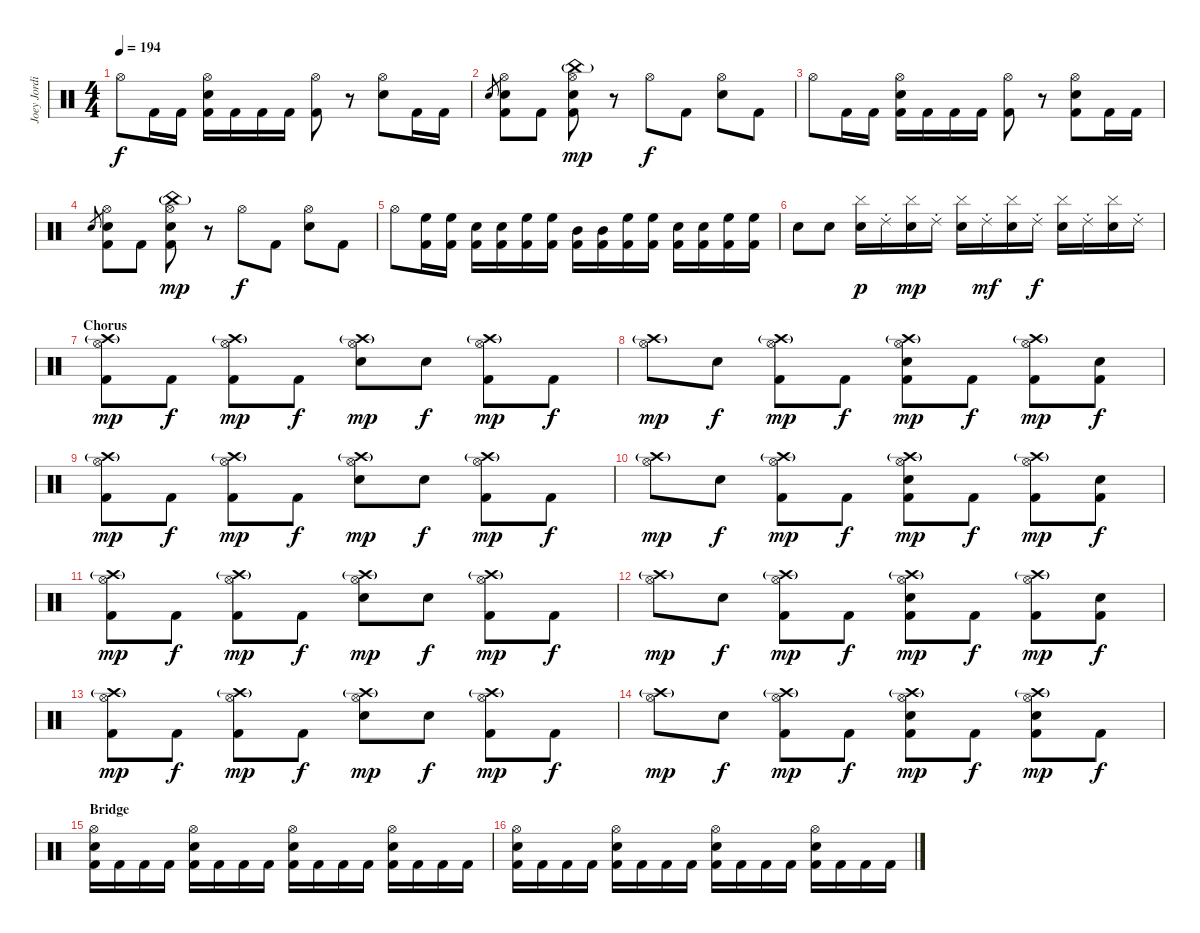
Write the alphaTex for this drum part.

\track ("Joey Jordison" "Joey Jordi") {instrument percussion}
\staff {score}
\articulation defaults
\ts (4 4)
\tempo 194
\clef neutral
\ks c "Hi-Hat (open)".8{dy f} "Kick (hit) 2".16 "Kick (hit) 2".16
("Hi-Hat (open)" "Snare (hit) 2" "Kick (hit) 2").16 "Kick (hit) 2".16 "Kick (hit) 2".16 "Kick (hit) 2".16 ("Hi-Hat (open)" "Kick (hit) 2").8 r.8 ("Hi-Hat (open)" "Snare (hit) 2").8 "Kick (hit) 2".16 "Kick (hit) 2".16 |
"Snare (hit) 2".8{gr} ("Hi-Hat (open)" "Snare (hit)" "Kick (hit) 2").8 "Kick (hit) 2".8 ("Hi-Hat (open)" "China (hit)"{g} "Snare (hit) 2" "Kick (hit) 2").8{dy mp} r.8 "Hi-Hat (open)".8{dy f} "Kick (hit) 2".8 ("Hi-Hat (open)" "Snare (hit) 2").8 "Kick (hit) 2".8 |
"Hi-Hat (open)".8 "Kick (hit) 2".16 "Kick (hit) 2".16 ("Hi-Hat (open)" "Snare (hit) 2" "Kick (hit) 2").16 "Kick (hit) 2".16 "Kick (hit) 2".16 "Kick (hit) 2".16 ("Hi-Hat (open)" "Kick (hit) 2").8 r.8 ("Hi-Hat (open)" "Snare (hit) 2" "Kick (hit) 2").8 "Kick (hit) 2".16 "Kick (hit) 2".16 |
"Snare (hit) 2".8{gr} ("Hi-Hat (open)" "Snare (hit)" "Kick (hit) 2").8 "Kick (hit) 2".8 ("Hi-Hat (open)" "China (hit)"{g} "Snare (hit) 2" "Kick (hit) 2").8{dy mp} r.8 "Hi-Hat (open)".8{dy f} "Kick (hit) 2".8 ("Hi-Hat (open)" "Snare (hit) 2").8 "Kick (hit) 2".8 |
"Hi-Hat (open)".8 ("High Floor Tom (hit)" "Kick (hit) 2").16 ("High Floor Tom (hit)" "Kick (hit) 2").16 ("Snare (hit) 2" "Kick (hit) 2").16 ("Snare (hit) 2" "Kick (hit) 2").16 ("High Floor Tom (hit)" "Kick (hit) 2").16 ("High Floor Tom (hit)" "Kick (hit) 2").16 ("Mid Tom (hit)" "Kick (hit) 2").16 ("Mid Tom (hit)" "Kick (hit) 2").16 ("High Floor Tom (hit)" "Kick (hit) 2").16 ("High Floor Tom (hit)" "Kick (hit) 2").16 ("Snare (hit) 2" "Kick (hit) 2").16 ("Snare (hit) 2" "Kick (hit) 2").16 ("High Floor Tom (hit)" "Kick (hit) 2").16 ("High Floor Tom (hit)" "Kick (hit) 2").16 |
"Snare (hit) 2".8 "Snare (hit) 2".8 ("Cymbal (hit)" "Snare (hit) 2").16{dy p} "Ride (choke) 2".16 ("Cymbal (hit)" "Snare (hit) 2").16{dy mp} "Ride (choke) 2".16 ("Cymbal (hit)" "Snare (hit) 2").16 "Ride (choke) 2".16{dy mf} ("Cymbal (hit)" "Snare (hit) 2").16 "Ride (choke) 2".16{dy f} ("Cymbal (hit)" "Snare (hit) 2").16 "Ride (choke) 2".16 ("Cymbal (hit)" "Snare (hit) 2").16 "Ride (choke) 2".16 |
\section ("" "Chorus")
("Hi-Hat (open)" "Crash high (hit)"{g} "Kick (hit) 2").8{dy mp} "Kick (hit) 2".8{dy f} ("Hi-Hat (open)" "Crash high (hit)"{g} "Kick (hit) 2").8{dy mp} "Kick (hit) 2".8{dy f} ("Hi-Hat (open)" "Crash high (hit)"{g} "Snare (hit) 2").8{dy mp} "Snare (hit) 2".8{dy f} ("Hi-Hat (open)" "Crash high (hit)"{g} "Kick (hit) 2").8{dy mp} "Kick (hit) 2".8{dy f} |
("Hi-Hat (open)" "Crash high (hit)"{g}).8{dy mp} "Snare (hit) 2".8{dy f} ("Hi-Hat (open)" "Crash high (hit)"{g} "Kick (hit) 2").8{dy mp} "Kick (hit) 2".8{dy f} ("Hi-Hat (open)" "Crash high (hit)"{g} "Snare (hit) 2" "Kick (hit) 2").8{dy mp} "Kick (hit) 2".8{dy f} ("Hi-Hat (open)" "Crash high (hit)"{g} "Kick (hit) 2").8{dy mp} ("Snare (hit) 2" "Kick (hit) 2").8{dy f} |
("Hi-Hat (open)" "Crash high (hit)"{g} "Kick (hit) 2").8{dy mp} "Kick (hit) 2".8{dy f} ("Hi-Hat (open)" "Crash high (hit)"{g} "Kick (hit) 2").8{dy mp} "Kick (hit) 2".8{dy f} ("Hi-Hat (open)" "Crash high (hit)"{g} "Snare (hit) 2").8{dy mp} "Snare (hit) 2".8{dy f} ("Hi-Hat (open)" "Crash high (hit)"{g} "Kick (hit) 2").8{dy mp} "Kick (hit) 2".8{dy f} |
("Hi-Hat (open)" "Crash high (hit)"{g}).8{dy mp} "Snare (hit) 2".8{dy f} ("Hi-Hat (open)" "Crash high (hit)"{g} "Kick (hit) 2").8{dy mp} "Kick (hit) 2".8{dy f} ("Hi-Hat (open)" "Crash high (hit)"{g} "Snare (hit) 2" "Kick (hit) 2").8{dy mp} "Kick (hit) 2".8{dy f} ("Hi-Hat (open)" "Crash high (hit)"{g} "Kick (hit) 2").8{dy mp} ("Snare (hit) 2" "Kick (hit) 2").8{dy f} |
("Hi-Hat (open)" "Crash high (hit)"{g} "Kick (hit) 2").8{dy mp} "Kick (hit) 2".8{dy f} ("Hi-Hat (open)" "Crash high (hit)"{g} "Kick (hit) 2").8{dy mp} "Kick (hit) 2".8{dy f} ("Hi-Hat (open)" "Crash high (hit)"{g} "Snare (hit) 2").8{dy mp} "Snare (hit) 2".8{dy f} ("Hi-Hat (open)" "Crash high (hit)"{g} "Kick (hit) 2").8{dy mp} "Kick (hit) 2".8{dy f} |
("Hi-Hat (open)" "Crash high (hit)"{g}).8{dy mp} "Snare (hit) 2".8{dy f} ("Hi-Hat (open)" "Crash high (hit)"{g} "Kick (hit) 2").8{dy mp} "Kick (hit) 2".8{dy f} ("Hi-Hat (open)" "Crash high (hit)"{g} "Snare (hit) 2" "Kick (hit) 2").8{dy mp} "Kick (hit) 2".8{dy f} ("Hi-Hat (open)" "Crash high (hit)"{g} "Kick (hit) 2").8{dy mp} ("Snare (hit) 2" "Kick (hit) 2").8{dy f} |
("Hi-Hat (open)" "Crash high (hit)"{g} "Kick (hit) 2").8{dy mp} "Kick (hit) 2".8{dy f} ("Hi-Hat (open)" "Crash high (hit)"{g} "Kick (hit) 2").8{dy mp} "Kick (hit) 2".8{dy f} ("Hi-Hat (open)" "Crash high (hit)"{g} "Snare (hit) 2").8{dy mp} "Snare (hit) 2".8{dy f} ("Hi-Hat (open)" "Crash high (hit)"{g} "Kick (hit) 2").8{dy mp} "Kick (hit) 2".8{dy f} |
("Hi-Hat (open)" "Crash high (hit)"{g}).8{dy mp} "Snare (hit) 2".8{dy f} ("Hi-Hat (open)" "Crash high (hit)"{g} "Kick (hit) 2").8{dy mp} "Kick (hit) 2".8{dy f} ("Hi-Hat (open)" "Crash high (hit)"{g} "Snare (hit) 2" "Kick (hit) 2").8{dy mp} "Kick (hit) 2".8{dy f} ("Hi-Hat (open)" "Crash high (hit)"{g} "Snare (hit) 2" "Kick (hit) 2").8{dy mp} "Kick (hit) 2".8{dy f} |
\section ("" "Bridge")
("Hi-Hat (open)" "Snare (hit) 2" "Kick (hit) 2").16 "Kick (hit) 2".16 "Kick (hit) 2".16 "Kick (hit) 2".16 ("Hi-Hat (open)" "Snare (hit) 2" "Kick (hit) 2").16 "Kick (hit) 2".16 "Kick (hit) 2".16 "Kick (hit) 2".16 ("Hi-Hat (open)" "Snare (hit) 2" "Kick (hit) 2").16 "Kick (hit) 2".16 "Kick (hit) 2".16 "Kick (hit) 2".16 ("Hi-Hat (open)" "Snare (hit) 2" "Kick (hit) 2").16 "Kick (hit) 2".16 "Kick (hit) 2".16 "Kick (hit) 2".16 |
("Hi-Hat (open)" "Snare (hit) 2" "Kick (hit) 2").16 "Kick (hit) 2".16 "Kick (hit) 2".16 "Kick (hit) 2".16 ("Hi-Hat (open)" "Snare (hit) 2" "Kick (hit) 2").16 "Kick (hit) 2".16 "Kick (hit) 2".16 "Kick (hit) 2".16 ("Hi-Hat (open)" "Snare (hit) 2" "Kick (hit) 2").16 "Kick (hit) 2".16 "Kick (hit) 2".16 "Kick (hit) 2".16 ("Hi-Hat (open)" "Snare (hit) 2" "Kick (hit) 2").16 "Kick (hit) 2".16 "Kick (hit) 2".16 "Kick (hit) 2".16
